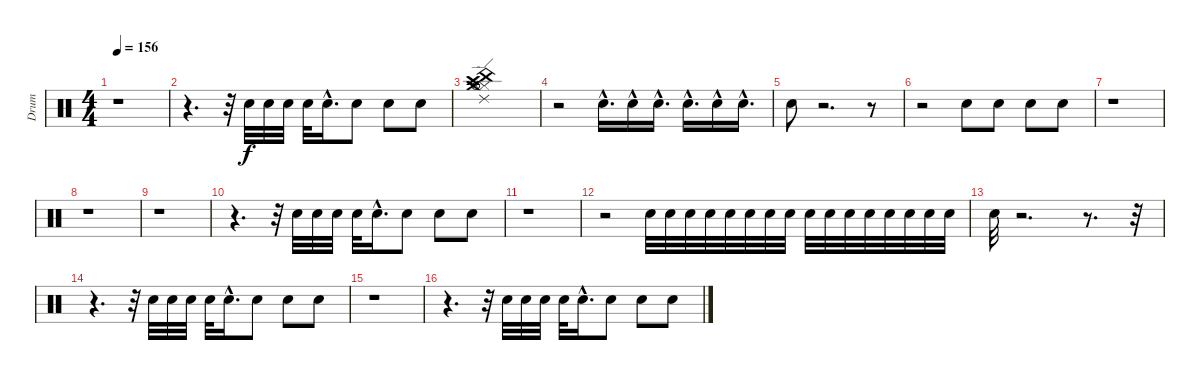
\track (" Drum" " Drum") {instrument percussion}
\staff {score}
\articulation defaults
\ts (4 4)
\tempo 156
\clef neutral
\ks c
r.1{dy f} |
r.4{d} r.32 "Snare (hit) 2".32{volume 4} "Snare (hit) 2".32{volume 4} "Snare (hit) 2".32{volume 5} "Snare (hit) 2".32{volume 6} "Snare (hit) 2"{hac}.16{d volume 7} "Snare (hit) 2".8{volume 9} "Snare (hit) 2".8{volume 12} "Snare (hit) 2".8 |
("Hi-Hat (closed)" "Hi-Hat (open)" "Crash high (hit)" "China (hit)" "Ride (edge) 2" "Crash medium (hit)").1{volume 7} |
r.2 "Snare (hit) 2"{hac}.16{d volume 3} "Snare (hit) 2"{hac}.16{volume 4} "Snare (hit) 2"{hac}.16{d volume 4} "Snare (hit) 2"{hac}.16{d volume 4} "Snare (hit) 2"{hac}.16{volume 5} "Snare (hit) 2"{hac}.16{d volume 5} |
"Snare (hit) 2".8{volume 6} r.2{d} r.8 |
r.2 "Snare (hit) 2".8{volume 7} "Snare (hit) 2".8 "Snare (hit) 2".8 "Snare (hit) 2".8 |
r.1 |
r.1 |
r.1 |
r.4{d} r.32 "Snare (hit) 2".32{volume 4} "Snare (hit) 2".32{volume 4} "Snare (hit) 2".32{volume 5} "Snare (hit) 2".32{volume 6} "Snare (hit) 2"{hac}.16{d volume 7} "Snare (hit) 2".8{volume 9} "Snare (hit) 2".8{volume 12} "Snare (hit) 2".8 |
r.1 |
r.2 "Snare (hit) 2".32{volume 0} "Snare (hit) 2".32{volume 0} "Snare (hit) 2".32{volume 1} "Snare (hit) 2".32{volume 2} "Snare (hit) 2".32{volume 2} "Snare (hit) 2".32{volume 3} "Snare (hit) 2".32{volume 3} "Snare (hit) 2".32{volume 4} "Snare (hit) 2".32{volume 4} "Snare (hit) 2".32{volume 5} "Snare (hit) 2".32{volume 5} "Snare (hit) 2".32{volume 6} "Snare (hit) 2".32{volume 6} "Snare (hit) 2".32{volume 7} "Snare (hit) 2".32 "Snare (hit) 2".32 |
"Snare (hit) 2".32 r.2{d} r.8{d} r.32 |
r.4{d} r.32 "Snare (hit) 2".32{volume 4} "Snare (hit) 2".32{volume 4} "Snare (hit) 2".32{volume 5} "Snare (hit) 2".32{volume 6} "Snare (hit) 2"{hac}.16{d volume 7} "Snare (hit) 2".8{volume 9} "Snare (hit) 2".8{volume 12} "Snare (hit) 2".8 |
r.1 |
r.4{d} r.32 "Snare (hit) 2".32{volume 4} "Snare (hit) 2".32{volume 4} "Snare (hit) 2".32{volume 5} "Snare (hit) 2".32{volume 6} "Snare (hit) 2"{hac}.16{d volume 7} "Snare (hit) 2".8{volume 9} "Snare (hit) 2".8{volume 12} "Snare (hit) 2".8
